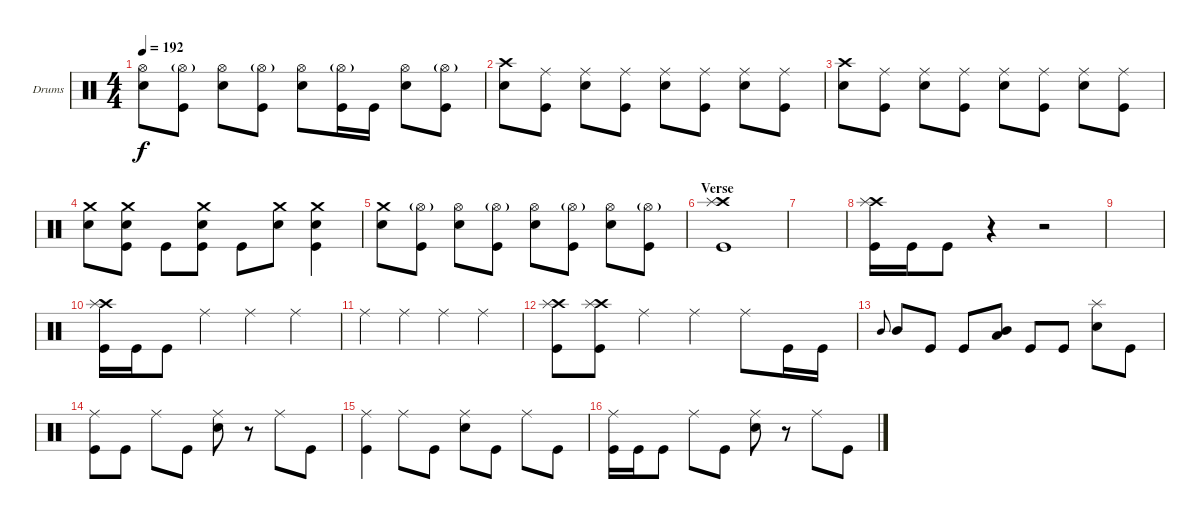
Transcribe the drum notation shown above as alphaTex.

\bracketExtendMode groupsimilarinstruments
\firstSystemTrackNameOrientation horizontal
\otherSystemsTrackNameOrientation horizontal
\track ("Corey Friedlander" "Drums") {instrument percussion}
\staff {score}
\articulation defaults
\ts (4 4)
\tempo 192
\clef neutral
\ks aminor
("Snare (hit) 2" "Hi-Hat (open)").8{dy f} ("Kick (hit)" "Hi-Hat (open)"{g}).8 ("Snare (hit) 2" "Hi-Hat (open)").8 ("Kick (hit)" "Hi-Hat (open)"{g}).8 ("Snare (hit) 2" "Hi-Hat (open)").8 ("Kick (hit)" "Hi-Hat (open)"{g}).16 "Kick (hit)".16 ("Snare (hit) 2" "Hi-Hat (open)").8 ("Kick (hit)" "Hi-Hat (open)"{g}).8 |
("Snare (hit) 2" "Crash high (hit)").8 ("Kick (hit)" "Ride (middle)").8 ("Snare (hit) 2" "Ride (middle)").8 ("Kick (hit)" "Ride (middle)").8 ("Snare (hit) 2" "Ride (middle)").8 ("Kick (hit)" "Ride (middle)").8 ("Snare (hit) 2" "Ride (middle)").8 ("Kick (hit)" "Ride (middle)").8 |
("Snare (hit) 2" "Crash high (hit)").8 ("Kick (hit)" "Ride (middle)").8 ("Snare (hit) 2" "Ride (middle)").8 ("Kick (hit)" "Ride (middle)").8 ("Snare (hit) 2" "Ride (middle)").8 ("Kick (hit)" "Ride (middle)").8 ("Snare (hit) 2" "Ride (middle)").8 ("Kick (hit)" "Ride (middle)").8 |
("Snare (hit) 2" "Crash medium (hit)").8 ("Snare (hit) 2" "Crash medium (hit)" "Kick (hit)").8 "Kick (hit)".8 ("Snare (hit) 2" "Crash medium (hit)" "Kick (hit)").8 "Kick (hit)".8 ("Snare (hit) 2" "Crash medium (hit)").8 ("Snare (hit) 2" "Crash medium (hit)" "Kick (hit)").4 |
("Snare (hit) 2" "Crash medium (hit)").8 ("Kick (hit)" "Hi-Hat (open)"{g}).8 ("Snare (hit) 2" "Hi-Hat (open)").8 ("Kick (hit)" "Hi-Hat (open)"{g}).8 ("Snare (hit) 2" "Hi-Hat (open)").8 ("Kick (hit)" "Hi-Hat (open)"{g}).8 ("Snare (hit) 2" "Hi-Hat (open)").8 ("Kick (hit)" "Hi-Hat (open)"{g}).8 |
\section ("" "Verse")
("Kick (hit)" "Crash high (hit)" "Splash (hit)").1 |
|
("Kick (hit)" "Crash high (hit)" "Splash (hit)").16 "Kick (hit)".16 "Kick (hit)".8 r.4 r.2 |
|
("Kick (hit)" "Crash high (hit)" "Splash (hit)").16 "Kick (hit)".16 "Kick (hit)".8 "Ride (middle)".4 "Ride (middle)".4 "Ride (middle)".4 |
"Ride (middle)".4 "Ride (middle)".4 "Ride (middle)".4 "Ride (middle)".4 |
("Kick (hit)" "Crash high (hit)" "Splash (hit)").8 ("Kick (hit)" "Crash high (hit)" "Splash (hit)").8 "Ride (middle)".4 "Ride (middle)".4 "Ride (middle)".8 "Kick (hit)".16 "Kick (hit)".16 |
"Mid Tom (hit)".8{gr onbeat} "Mid Tom (hit)".8 "Kick (hit)".8 "Kick (hit)".8 ("Mid Tom (hit)" "Low Tom (hit)").8 "Kick (hit)".8 "Kick (hit)".8 ("Snare (hit) 2" "Splash (hit)").8 "Kick (hit)".8 |
("Kick (hit)" "Ride (middle)").8 "Kick (hit)".8 "Ride (middle)".8 "Kick (hit)".8 ("Snare (hit) 2" "Ride (middle)").8 r.8 "Ride (middle)".8 "Kick (hit)".8 |
("Kick (hit)" "Ride (middle)").4 "Ride (middle)".8 "Kick (hit)".8 ("Snare (hit) 2" "Ride (middle)").8 "Kick (hit)".8 "Ride (middle)".8 "Kick (hit)".8 |
("Kick (hit)" "Ride (middle)").16 "Kick (hit)".16 "Kick (hit)".8 "Ride (middle)".8 "Kick (hit)".8 ("Snare (hit) 2" "Ride (middle)").8 r.8 "Ride (middle)".8 "Kick (hit)".8
